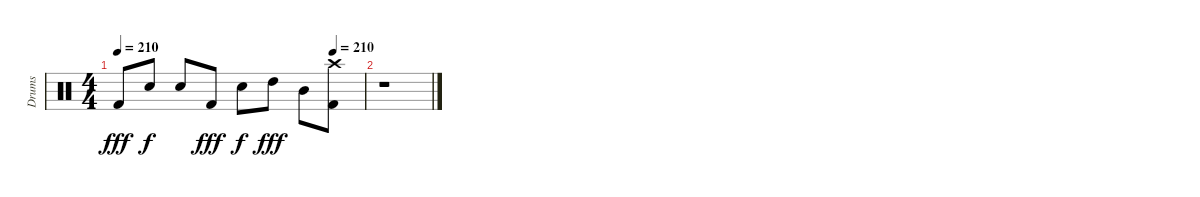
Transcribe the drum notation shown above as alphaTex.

\track ("Drums" "Drums") {instrument percussion}
\staff {score}
\articulation defaults
\ts (4 4)
\tempo 210
\tempo (210 0.875)
\clef neutral
\ks c "Kick (hit) 2".8{dy fff} "Snare (hit) 2".8{dy f} "Snare (hit) 2".8 "Kick (hit) 2".8{dy fff} "Snare (hit) 2".8{dy f} "High Tom (hit)".8{dy fff} "Mid Tom (hit)".8
("Crash high (hit)" "Kick (hit) 2").8 |
r.1
